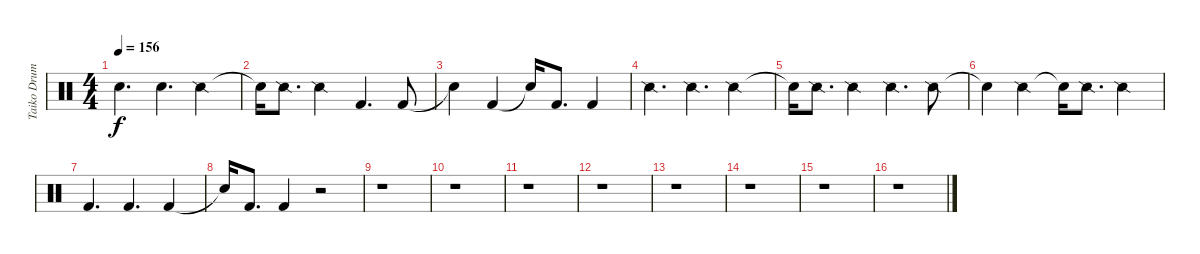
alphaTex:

\track ("Taiko Drum" "Taiko Drum") {instrument percussion}
\staff {score}
\articulation defaults
\ts (4 4)
\tempo 156
\clef neutral
\ks c "Snare (hit) 2".4{d dy f} "Snare (hit) 2".4{d} "Snare (side stick) 2".4
|
"Snare (hit)"{t}.16 "Snare (side stick) 2".8{d} "Snare (side stick) 2".4 "Kick (hit) 2".4{d} "Kick (hit) 2".8 |
"Snare (hit)"{t}.4 "Kick (hit) 2".4 "Snare (hit)"{t}.16 "Kick (hit) 2".8{d} "Kick (hit) 2".4 |
"Snare (side stick) 2".4{d} "Snare (side stick) 2".4{d} "Snare (side stick) 2".4 |
"Snare (hit)"{t}.16 "Snare (side stick) 2".8{d} "Snare (side stick) 2".4 "Snare (side stick) 2".4{d} "Snare (side stick) 2".8 |
"Snare (hit)"{t}.4 "Snare (side stick) 2".4 "Snare (hit)"{t}.16 "Snare (side stick) 2".8{d} "Snare (side stick) 2".4 |
"Kick (hit) 2".4{d} "Kick (hit) 2".4{d} "Kick (hit) 2".4 |
"Snare (hit)"{t}.16 "Kick (hit) 2".8{d} "Kick (hit) 2".4 r.2 |
r.1 |
r.1 |
r.1 |
r.1 |
r.1 |
r.1 |
r.1 |
r.1
